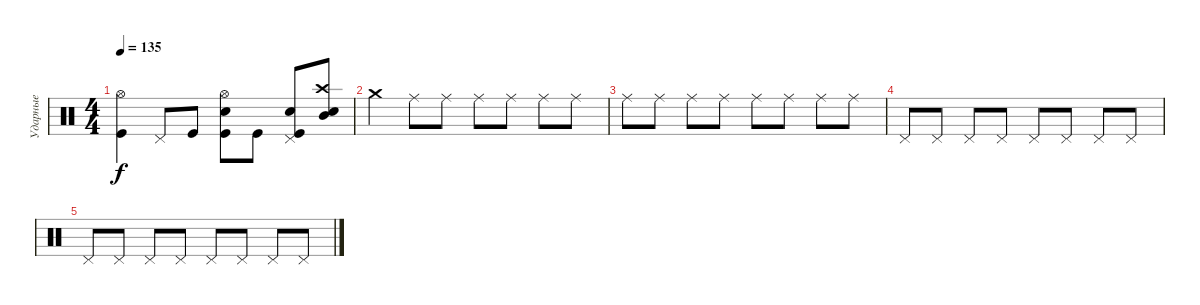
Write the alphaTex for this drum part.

\track ("Ударные" "Ударные") {instrument percussion}
\staff {score}
\articulation defaults
\ts (4 4)
\tempo 135
\clef neutral
\ks c
("Hi-Hat (open)" "Kick (hit)").4{dy f} "Pedal Hi-Hat (hit)".8 "Kick (hit)".8 ("Hi-Hat (open)" "Electric Snare (hit)" "Kick (hit)").8 "Kick (hit)".8 ("Pedal Hi-Hat (hit)" "Electric Snare (hit)" "Kick (hit)").8 ("Crash high (hit)" "Mid Tom (hit)" "Electric Snare (hit)").8 |
"Crash medium (hit)".4 "Ride (middle)".8 "Ride (middle)".8 "Ride (middle)".8 "Ride (middle)".8 "Ride (middle)".8 "Ride (middle)".8 |
"Ride (middle)".8 "Ride (middle)".8 "Ride (middle)".8 "Ride (middle)".8 "Ride (middle)".8 "Ride (middle)".8 "Ride (middle)".8 "Ride (middle)".8 |
"Pedal Hi-Hat (hit)".8 "Pedal Hi-Hat (hit)".8 "Pedal Hi-Hat (hit)".8 "Pedal Hi-Hat (hit)".8 "Pedal Hi-Hat (hit)".8 "Pedal Hi-Hat (hit)".8 "Pedal Hi-Hat (hit)".8 "Pedal Hi-Hat (hit)".8 |
"Pedal Hi-Hat (hit)".8 "Pedal Hi-Hat (hit)".8 "Pedal Hi-Hat (hit)".8 "Pedal Hi-Hat (hit)".8 "Pedal Hi-Hat (hit)".8 "Pedal Hi-Hat (hit)".8 "Pedal Hi-Hat (hit)".8 "Pedal Hi-Hat (hit)".8
